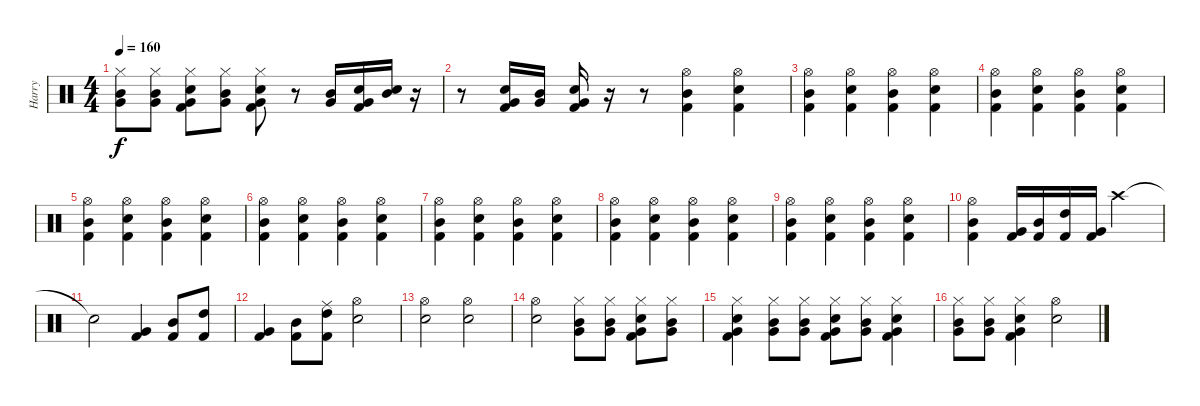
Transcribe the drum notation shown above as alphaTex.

\track ("Harry" "Harry") {instrument percussion}
\staff {score}
\articulation defaults
\ts (4 4)
\tempo 160
\clef neutral
\ks c
("Hi-Hat (closed)" "Very Low Tom (hit)" "Mid Tom (hit)").8{dy f} ("Hi-Hat (closed)" "Very Low Tom (hit)" "Mid Tom (hit)").8 ("Hi-Hat (closed)" "Very Low Tom (hit)" "Kick (hit) 2" "Snare (hit) 2").8 ("Hi-Hat (closed)" "Mid Tom (hit)" "Very Low Tom (hit)").8 ("Hi-Hat (closed)" "Very Low Tom (hit)" "Kick (hit) 2" "Snare (hit) 2").8 r.8 ("Mid Tom (hit)" "Very Low Tom (hit)").16 ("Very Low Tom (hit)" "Kick (hit) 2" "Snare (hit) 2").16 ("Mid Tom (hit)" "Snare (hit) 2").16 r.16 |
r.8 ("Very Low Tom (hit)" "Kick (hit) 2" "Snare (hit) 2").16 ("Mid Tom (hit)" "Very Low Tom (hit)").16 ("Very Low Tom (hit)" "Kick (hit) 2" "Snare (hit) 2").16 r.16 r.8 ("Hi-Hat (open)" "Mid Tom (hit)" "Kick (hit) 2").4 ("Hi-Hat (open)" "Kick (hit) 2" "Snare (hit) 2").4 |
("Hi-Hat (open)" "Mid Tom (hit)" "Kick (hit) 2").4 ("Hi-Hat (open)" "Kick (hit) 2" "Snare (hit) 2").4 ("Hi-Hat (open)" "Mid Tom (hit)" "Kick (hit) 2").4 ("Hi-Hat (open)" "Kick (hit) 2" "Snare (hit) 2").4 |
("Hi-Hat (open)" "Mid Tom (hit)" "Kick (hit) 2").4 ("Hi-Hat (open)" "Kick (hit) 2" "Snare (hit) 2").4 ("Hi-Hat (open)" "Mid Tom (hit)" "Kick (hit) 2").4 ("Hi-Hat (open)" "Kick (hit) 2" "Snare (hit) 2").4 |
("Hi-Hat (open)" "Mid Tom (hit)" "Kick (hit) 2").4 ("Hi-Hat (open)" "Kick (hit) 2" "Snare (hit) 2").4 ("Hi-Hat (open)" "Mid Tom (hit)" "Kick (hit) 2").4 ("Hi-Hat (open)" "Kick (hit) 2" "Snare (hit) 2").4 |
("Hi-Hat (open)" "Mid Tom (hit)" "Kick (hit) 2").4 ("Hi-Hat (open)" "Kick (hit) 2" "Snare (hit) 2").4 ("Hi-Hat (open)" "Mid Tom (hit)" "Kick (hit) 2").4 ("Hi-Hat (open)" "Kick (hit) 2" "Snare (hit) 2").4 |
("Hi-Hat (open)" "Mid Tom (hit)" "Kick (hit) 2").4 ("Hi-Hat (open)" "Kick (hit) 2" "Snare (hit) 2").4 ("Hi-Hat (open)" "Mid Tom (hit)" "Kick (hit) 2").4 ("Hi-Hat (open)" "Kick (hit) 2" "Snare (hit) 2").4 |
("Hi-Hat (open)" "Mid Tom (hit)" "Kick (hit) 2").4 ("Hi-Hat (open)" "Kick (hit) 2" "Snare (hit) 2").4 ("Hi-Hat (open)" "Mid Tom (hit)" "Kick (hit) 2").4 ("Hi-Hat (open)" "Kick (hit) 2" "Snare (hit) 2").4 |
("Hi-Hat (open)" "Mid Tom (hit)" "Kick (hit) 2").4 ("Hi-Hat (open)" "Kick (hit) 2" "Snare (hit) 2").4 ("Hi-Hat (open)" "Mid Tom (hit)" "Kick (hit) 2").4 ("Hi-Hat (open)" "Kick (hit) 2" "Snare (hit) 2").4 |
("Hi-Hat (open)" "Mid Tom (hit)" "Kick (hit) 2").4 ("Very Low Tom (hit)" "Kick (hit) 2").16 ("Mid Tom (hit)" "Kick (hit) 2").16 ("High Tom (hit)" "Kick (hit) 2").16 ("Very Low Tom (hit)" "Kick (hit) 2").16 "Crash high (hit)".2 |
"Snare (hit)"{t}.2 ("Kick (hit) 2" "Very Low Tom (hit)").4 ("Kick (hit) 2" "Mid Tom (hit)").8 ("Kick (hit) 2" "High Tom (hit)").8 |
("Kick (hit) 2" "Very Low Tom (hit)").4 ("Kick (hit) 2" "Mid Tom (hit)").8 ("Ride (middle)" "Kick (hit) 2" "High Tom (hit)").8 ("Hi-Hat (open)" "Snare (hit) 2").2 |
("Hi-Hat (open)" "Snare (hit) 2").2 ("Hi-Hat (open)" "Snare (hit) 2").2 |
("Hi-Hat (open)" "Snare (hit) 2").2 ("Hi-Hat (closed)" "Very Low Tom (hit)" "Mid Tom (hit)").8 ("Hi-Hat (closed)" "Very Low Tom (hit)" "Mid Tom (hit)").8 ("Hi-Hat (closed)" "Very Low Tom (hit)" "Kick (hit) 2" "Snare (hit) 2").8 ("Hi-Hat (closed)" "Mid Tom (hit)" "Very Low Tom (hit)").8 |
("Hi-Hat (closed)" "Very Low Tom (hit)" "Kick (hit) 2" "Snare (hit) 2").4 ("Hi-Hat (closed)" "Very Low Tom (hit)" "Mid Tom (hit)").8 ("Hi-Hat (closed)" "Very Low Tom (hit)" "Mid Tom (hit)").8 ("Hi-Hat (closed)" "Very Low Tom (hit)" "Kick (hit) 2" "Snare (hit) 2").8 ("Hi-Hat (closed)" "Mid Tom (hit)" "Very Low Tom (hit)").8 ("Hi-Hat (closed)" "Very Low Tom (hit)" "Kick (hit) 2" "Snare (hit) 2").4 |
("Hi-Hat (closed)" "Very Low Tom (hit)" "Mid Tom (hit)").8 ("Hi-Hat (closed)" "Very Low Tom (hit)" "Mid Tom (hit)").8 ("Hi-Hat (closed)" "Very Low Tom (hit)" "Kick (hit) 2" "Snare (hit) 2").4 ("Hi-Hat (open)" "Snare (hit) 2").2
